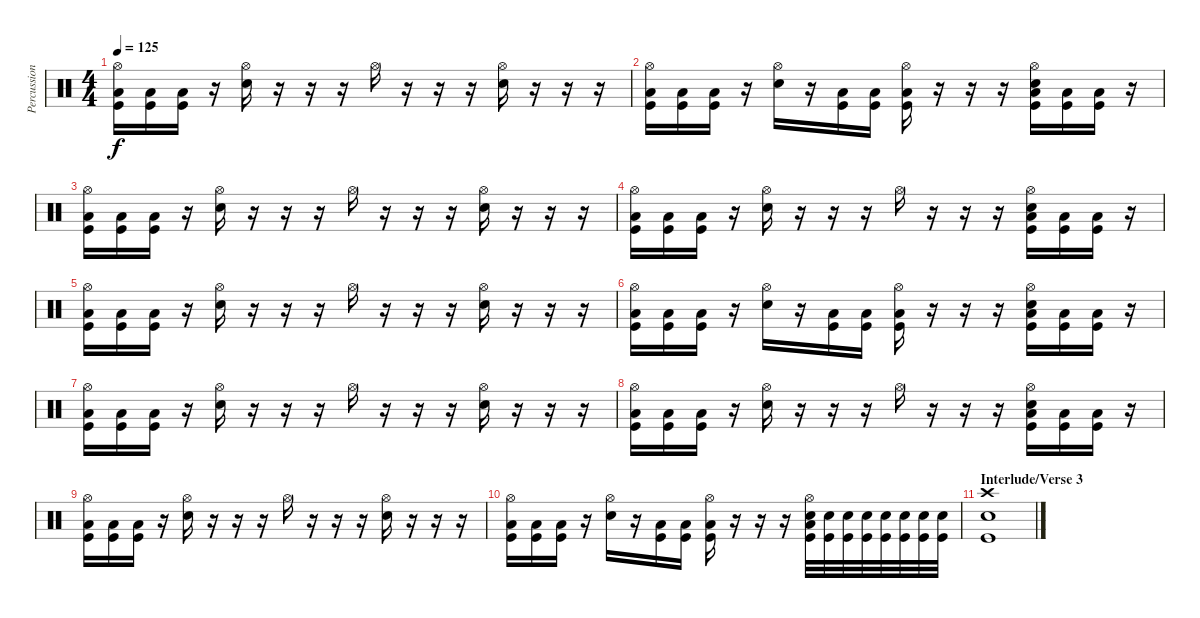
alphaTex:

\track ("Percussion" "Percussion") {instrument percussion}
\staff {score}
\articulation defaults
\ts (4 4)
\tempo 125
\clef neutral
\ks c
("Hi-Hat (open)" "Low Floor Tom (hit)" "Kick (hit)").16{dy f} ("Low Floor Tom (hit)" "Kick (hit)").16 ("Low Floor Tom (hit)" "Kick (hit)").16 r.16 ("Hi-Hat (open)" "Electric Snare (hit)").16 r.16 r.16 r.16 "Hi-Hat (open)".16 r.16 r.16 r.16 ("Hi-Hat (open)" "Electric Snare (hit)").16 r.16 r.16 r.16 |
("Hi-Hat (open)" "Low Floor Tom (hit)" "Kick (hit)").16 ("Low Floor Tom (hit)" "Kick (hit)").16 ("Low Floor Tom (hit)" "Kick (hit)").16 r.16 ("Hi-Hat (open)" "Electric Snare (hit)").16 r.16 ("Low Floor Tom (hit)" "Kick (hit)").16 ("Low Floor Tom (hit)" "Kick (hit)").16 ("Hi-Hat (open)" "Low Floor Tom (hit)" "Kick (hit)").16 r.16 r.16 r.16 ("Hi-Hat (open)" "Low Floor Tom (hit)" "Kick (hit)" "Electric Snare (hit)").16 ("Low Floor Tom (hit)" "Kick (hit)").16 ("Low Floor Tom (hit)" "Kick (hit)").16 r.16 |
("Hi-Hat (open)" "Low Floor Tom (hit)" "Kick (hit)").16 ("Low Floor Tom (hit)" "Kick (hit)").16 ("Low Floor Tom (hit)" "Kick (hit)").16 r.16 ("Hi-Hat (open)" "Electric Snare (hit)").16 r.16 r.16 r.16 "Hi-Hat (open)".16 r.16 r.16 r.16 ("Hi-Hat (open)" "Electric Snare (hit)").16 r.16 r.16 r.16 |
("Hi-Hat (open)" "Low Floor Tom (hit)" "Kick (hit)").16 ("Low Floor Tom (hit)" "Kick (hit)").16 ("Low Floor Tom (hit)" "Kick (hit)").16 r.16 ("Hi-Hat (open)" "Electric Snare (hit)").16 r.16 r.16 r.16 "Hi-Hat (open)".16 r.16 r.16 r.16 ("Hi-Hat (open)" "Low Floor Tom (hit)" "Kick (hit)" "Electric Snare (hit)").16 ("Low Floor Tom (hit)" "Kick (hit)").16 ("Low Floor Tom (hit)" "Kick (hit)").16 r.16 |
("Hi-Hat (open)" "Low Floor Tom (hit)" "Kick (hit)").16 ("Low Floor Tom (hit)" "Kick (hit)").16 ("Low Floor Tom (hit)" "Kick (hit)").16 r.16 ("Hi-Hat (open)" "Electric Snare (hit)").16 r.16 r.16 r.16 "Hi-Hat (open)".16 r.16 r.16 r.16 ("Hi-Hat (open)" "Electric Snare (hit)").16 r.16 r.16 r.16 |
("Hi-Hat (open)" "Low Floor Tom (hit)" "Kick (hit)").16 ("Low Floor Tom (hit)" "Kick (hit)").16 ("Low Floor Tom (hit)" "Kick (hit)").16 r.16 ("Hi-Hat (open)" "Electric Snare (hit)").16 r.16 ("Low Floor Tom (hit)" "Kick (hit)").16 ("Low Floor Tom (hit)" "Kick (hit)").16 ("Hi-Hat (open)" "Low Floor Tom (hit)" "Kick (hit)").16 r.16 r.16 r.16 ("Hi-Hat (open)" "Low Floor Tom (hit)" "Kick (hit)" "Electric Snare (hit)").16 ("Low Floor Tom (hit)" "Kick (hit)").16 ("Low Floor Tom (hit)" "Kick (hit)").16 r.16 |
("Hi-Hat (open)" "Low Floor Tom (hit)" "Kick (hit)").16 ("Low Floor Tom (hit)" "Kick (hit)").16 ("Low Floor Tom (hit)" "Kick (hit)").16 r.16 ("Hi-Hat (open)" "Electric Snare (hit)").16 r.16 r.16 r.16 "Hi-Hat (open)".16 r.16 r.16 r.16 ("Hi-Hat (open)" "Electric Snare (hit)").16 r.16 r.16 r.16 |
("Hi-Hat (open)" "Low Floor Tom (hit)" "Kick (hit)").16 ("Low Floor Tom (hit)" "Kick (hit)").16 ("Low Floor Tom (hit)" "Kick (hit)").16 r.16 ("Hi-Hat (open)" "Electric Snare (hit)").16 r.16 r.16 r.16 "Hi-Hat (open)".16 r.16 r.16 r.16 ("Hi-Hat (open)" "Low Floor Tom (hit)" "Kick (hit)" "Electric Snare (hit)").16 ("Low Floor Tom (hit)" "Kick (hit)").16 ("Low Floor Tom (hit)" "Kick (hit)").16 r.16 |
("Hi-Hat (open)" "Low Floor Tom (hit)" "Kick (hit)").16 ("Low Floor Tom (hit)" "Kick (hit)").16 ("Low Floor Tom (hit)" "Kick (hit)").16 r.16 ("Hi-Hat (open)" "Electric Snare (hit)").16 r.16 r.16 r.16 "Hi-Hat (open)".16 r.16 r.16 r.16 ("Hi-Hat (open)" "Electric Snare (hit)").16 r.16 r.16 r.16 |
("Hi-Hat (open)" "Low Floor Tom (hit)" "Kick (hit)").16 ("Low Floor Tom (hit)" "Kick (hit)").16 ("Low Floor Tom (hit)" "Kick (hit)").16 r.16 ("Hi-Hat (open)" "Electric Snare (hit)").16 r.16 ("Low Floor Tom (hit)" "Kick (hit)").16 ("Low Floor Tom (hit)" "Kick (hit)").16 ("Hi-Hat (open)" "Low Floor Tom (hit)" "Kick (hit)").16 r.16 r.16 r.16 ("Hi-Hat (open)" "Low Floor Tom (hit)" "Kick (hit)" "Electric Snare (hit)").32 ("Electric Snare (hit)" "Kick (hit)").32 ("Electric Snare (hit)" "Kick (hit)").32 ("Electric Snare (hit)" "Kick (hit)").32 ("Electric Snare (hit)" "Kick (hit)").32 ("Electric Snare (hit)" "Kick (hit)").32 ("Electric Snare (hit)" "Kick (hit)").32 ("Electric Snare (hit)" "Kick (hit)").32 |
\section ("" "Interlude/Verse 3")
("Kick (hit)" "Electric Snare (hit)" "Crash high (hit)").1
